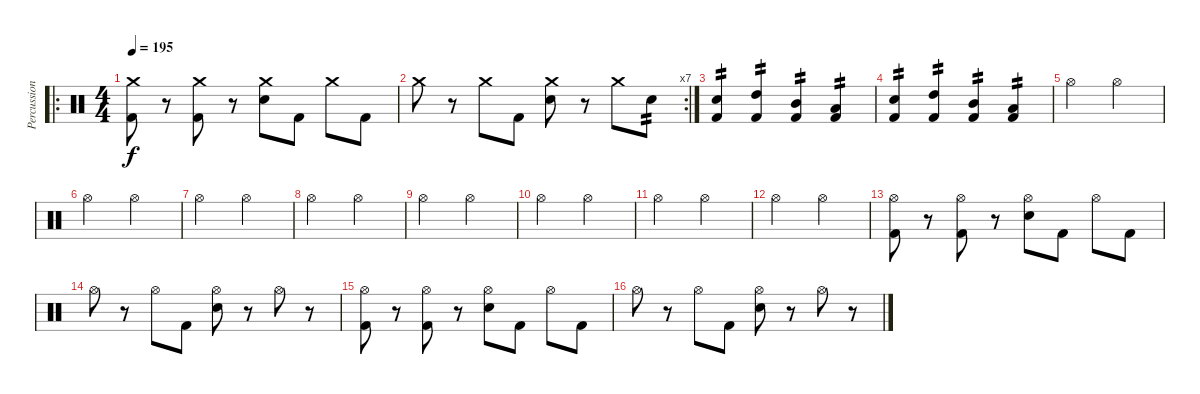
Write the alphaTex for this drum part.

\track ("Percussion" "Percussion") {instrument percussion}
\staff {score}
\articulation defaults
\ro
\ts (4 4)
\tempo 195
\clef neutral
\ks c
("Crash medium (hit)" "Kick (hit) 2").8{dy f} r.8 ("Crash medium (hit)" "Kick (hit) 2").8 r.8 ("Crash medium (hit)" "Electric Snare (hit)").8 "Kick (hit) 2".8 "Crash medium (hit)".8 "Kick (hit) 2".8 |
\rc 7 "Crash medium (hit)".8
r.8 "Crash medium (hit)".8 "Kick (hit) 2".8 ("Crash medium (hit)" "Electric Snare (hit)").8 r.8 "Crash medium (hit)".8 "Electric Snare (hit)".8{tp 2} |
("Electric Snare (hit)" "Kick (hit) 2").4{tp 2} ("High Tom (hit)" "Kick (hit) 2").4{tp 2} ("Mid Tom (hit)" "Kick (hit) 2").4{tp 2} ("Low Tom (hit)" "Kick (hit) 2").4{tp 2} |
("Electric Snare (hit)" "Kick (hit) 2").4{tp 2} ("High Tom (hit)" "Kick (hit) 2").4{tp 2} ("Mid Tom (hit)" "Kick (hit) 2").4{tp 2} ("Low Tom (hit)" "Kick (hit) 2").4{tp 2} |
"Hi-Hat (open)".2 "Hi-Hat (open)".2 |
"Hi-Hat (open)".2 "Hi-Hat (open)".2 |
"Hi-Hat (open)".2 "Hi-Hat (open)".2 |
"Hi-Hat (open)".2 "Hi-Hat (open)".2 |
"Hi-Hat (open)".2 "Hi-Hat (open)".2 |
"Hi-Hat (open)".2 "Hi-Hat (open)".2 |
"Hi-Hat (open)".2 "Hi-Hat (open)".2 |
"Hi-Hat (open)".2 "Hi-Hat (open)".2 |
("Hi-Hat (open)" "Kick (hit) 2").8 r.8 ("Hi-Hat (open)" "Kick (hit) 2").8 r.8 ("Hi-Hat (open)" "Electric Snare (hit)").8 "Kick (hit) 2".8 "Hi-Hat (open)".8 "Kick (hit) 2".8 |
"Hi-Hat (open)".8 r.8 "Hi-Hat (open)".8 "Kick (hit) 2".8 ("Hi-Hat (open)" "Electric Snare (hit)").8 r.8 "Hi-Hat (open)".8 r.8 |
("Hi-Hat (open)" "Kick (hit) 2").8 r.8 ("Hi-Hat (open)" "Kick (hit) 2").8 r.8 ("Hi-Hat (open)" "Electric Snare (hit)").8 "Kick (hit) 2".8 "Hi-Hat (open)".8 "Kick (hit) 2".8 |
"Hi-Hat (open)".8 r.8 "Hi-Hat (open)".8 "Kick (hit) 2".8 ("Hi-Hat (open)" "Electric Snare (hit)").8 r.8 "Hi-Hat (open)".8 r.8
